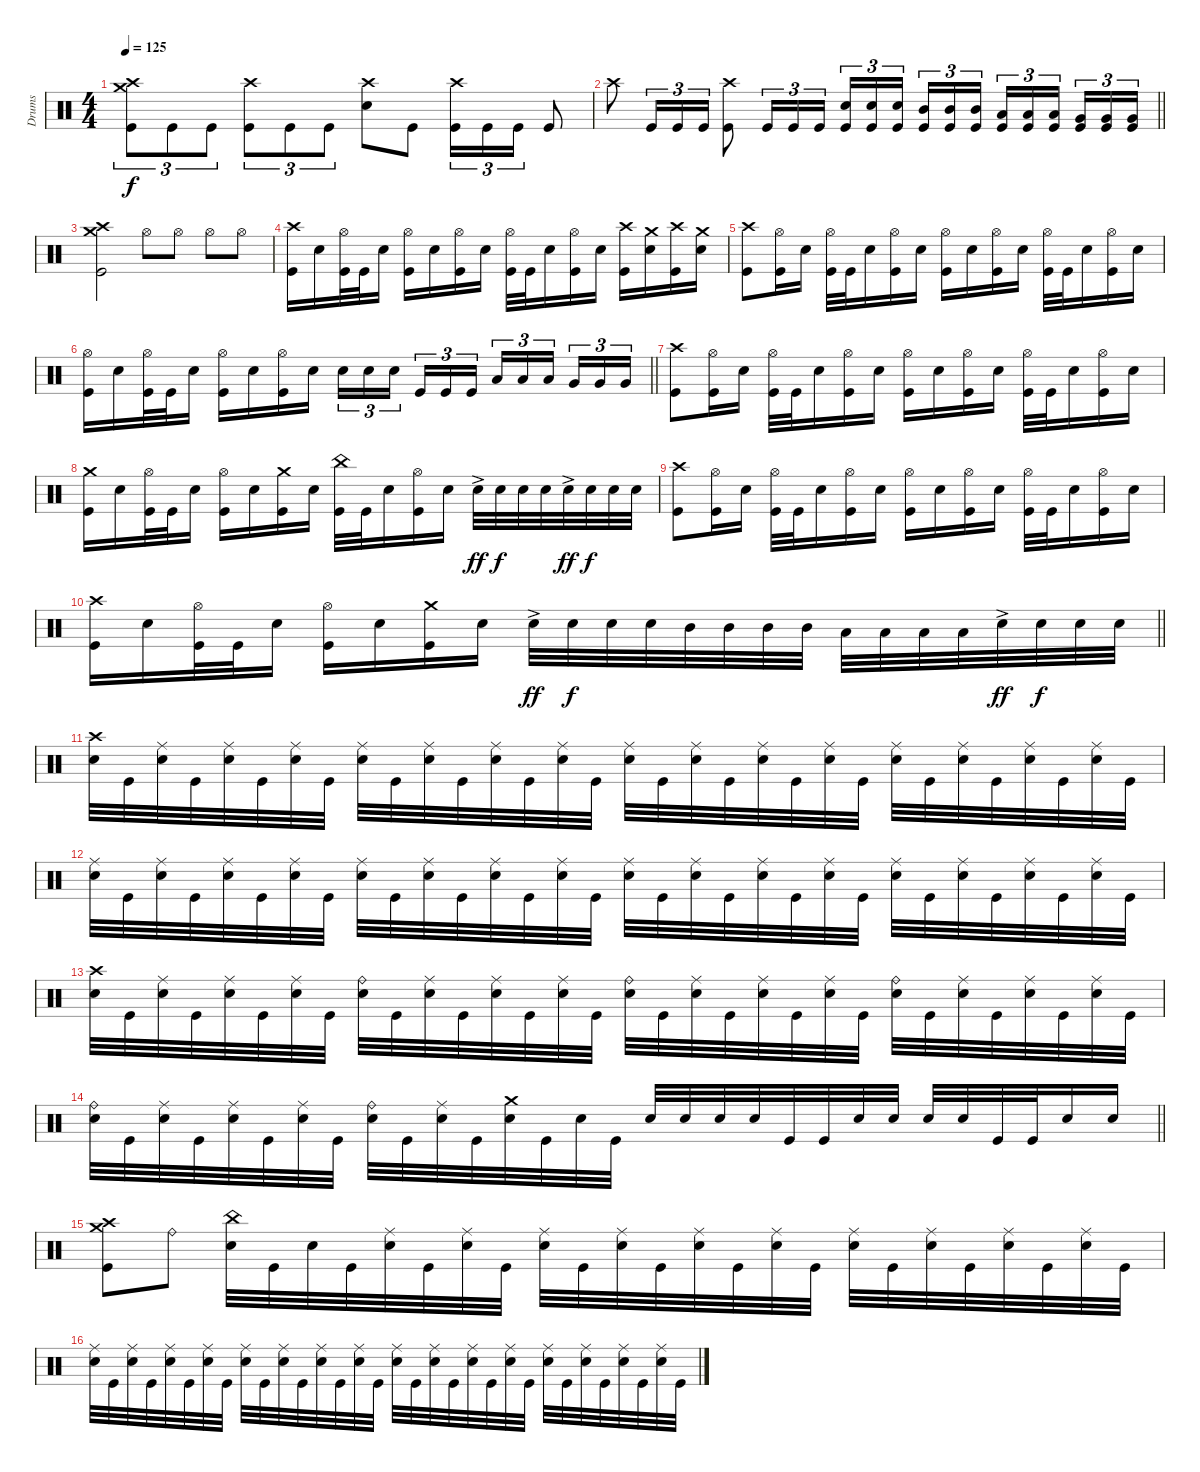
\track ("Drums" "Drums") {instrument percussion}
\staff
\articulation defaults
\ts (4 4)
\tempo 125
\clef neutral
\ks c
("Crash high (hit)" "Crash medium (hit)" "Kick (hit)").8{tu (3 2) dy f} "Kick (hit)".8{tu (3 2)} "Kick (hit)".8{tu (3 2)} ("Crash high (hit)" "Kick (hit)").8{tu (3 2)} "Kick (hit)".8{tu (3 2)} "Kick (hit)".8{tu (3 2)} ("Crash high (hit)" "Electric Snare (hit)").8 "Kick (hit)".8 ("Crash high (hit)" "Kick (hit)").16{tu (3 2)} "Kick (hit)".16{tu (3 2)} "Kick (hit)".16{tu (3 2)} "Kick (hit)".8 |
\barLineRight lightlight "Crash high (hit)".8 "Kick (hit)".16{tu (3 2)} "Kick (hit)".16{tu (3 2)} "Kick (hit)".16{tu (3 2)}
("Crash high (hit)" "Kick (hit)").8 "Kick (hit)".16{tu (3 2)} "Kick (hit)".16{tu (3 2)} "Kick (hit)".16{tu (3 2)} ("Electric Snare (hit)" "Kick (hit)").16{tu (3 2)} ("Electric Snare (hit)" "Kick (hit)").16{tu (3 2)} ("Electric Snare (hit)" "Kick (hit)").16{tu (3 2) beam splitsecondary} ("Mid Tom (hit)" "Kick (hit)").16{tu (3 2)} ("Mid Tom (hit)" "Kick (hit)").16{tu (3 2)} ("Mid Tom (hit)" "Kick (hit)").16{tu (3 2)} ("Low Tom (hit)" "Kick (hit)").16{tu (3 2)} ("Low Tom (hit)" "Kick (hit)").16{tu (3 2)} ("Low Tom (hit)" "Kick (hit)").16{tu (3 2) beam splitsecondary} ("Very Low Tom (hit)" "Kick (hit)").16{tu (3 2)} ("Very Low Tom (hit)" "Kick (hit)").16{tu (3 2)} ("Very Low Tom (hit)" "Kick (hit)").16{tu (3 2)} |
\section ("" "")
("Crash high (hit)" "Crash medium (hit)" "Kick (hit)").2 "Hi-Hat (open)".8 "Hi-Hat (open)".8 "Hi-Hat (open)".8 "Hi-Hat (open)".8 |
("Crash high (hit)" "Kick (hit)").16 "Electric Snare (hit)".16 ("Hi-Hat (open)" "Kick (hit)").32 "Kick (hit)".32 "Electric Snare (hit)".16 ("Hi-Hat (open)" "Kick (hit)").16 "Electric Snare (hit)".16 ("Hi-Hat (open)" "Kick (hit)").16 "Electric Snare (hit)".16 ("Hi-Hat (open)" "Kick (hit)").32 "Kick (hit)".32 "Electric Snare (hit)".16 ("Hi-Hat (open)" "Kick (hit)").16 "Electric Snare (hit)".16 ("Crash high (hit)" "Kick (hit)").16 ("Crash medium (hit)" "Electric Snare (hit)").16 ("Crash high (hit)" "Kick (hit)").16 ("Crash medium (hit)" "Electric Snare (hit)").16 |
("Crash high (hit)" "Kick (hit)").8 ("Hi-Hat (open)" "Kick (hit)").16 "Electric Snare (hit)".16 ("Hi-Hat (open)" "Kick (hit)").32 "Kick (hit)".32 "Electric Snare (hit)".16 ("Hi-Hat (open)" "Kick (hit)").16 "Electric Snare (hit)".16 ("Hi-Hat (open)" "Kick (hit)").16 "Electric Snare (hit)".16 ("Hi-Hat (open)" "Kick (hit)").16 "Electric Snare (hit)".16 ("Hi-Hat (open)" "Kick (hit)").32 "Kick (hit)".32 "Electric Snare (hit)".16 ("Hi-Hat (open)" "Kick (hit)").16 "Electric Snare (hit)".16 |
\barLineRight lightlight
("Hi-Hat (open)" "Kick (hit)").16 "Electric Snare (hit)".16 ("Hi-Hat (open)" "Kick (hit)").32 "Kick (hit)".32 "Electric Snare (hit)".16 ("Hi-Hat (open)" "Kick (hit)").16 "Electric Snare (hit)".16 ("Hi-Hat (open)" "Kick (hit)").16 "Electric Snare (hit)".16 "Electric Snare (hit)".16{tu (3 2)} "Electric Snare (hit)".16{tu (3 2)} "Electric Snare (hit)".16{tu (3 2) beam splitsecondary} "Kick (hit)".16{tu (3 2)} "Kick (hit)".16{tu (3 2)} "Kick (hit)".16{tu (3 2)} "Low Tom (hit)".16{tu (3 2)} "Low Tom (hit)".16{tu (3 2)} "Low Tom (hit)".16{tu (3 2) beam splitsecondary} "Very Low Tom (hit)".16{tu (3 2)} "Very Low Tom (hit)".16{tu (3 2)} "Very Low Tom (hit)".16{tu (3 2)} |
("Crash high (hit)" "Kick (hit)").8 ("Hi-Hat (open)" "Kick (hit)").16 "Electric Snare (hit)".16 ("Hi-Hat (open)" "Kick (hit)").32 "Kick (hit)".32 "Electric Snare (hit)".16 ("Hi-Hat (open)" "Kick (hit)").16 "Electric Snare (hit)".16 ("Hi-Hat (open)" "Kick (hit)").16 "Electric Snare (hit)".16 ("Hi-Hat (open)" "Kick (hit)").16 "Electric Snare (hit)".16 ("Hi-Hat (open)" "Kick (hit)").32 "Kick (hit)".32 "Electric Snare (hit)".16 ("Hi-Hat (open)" "Kick (hit)").16 "Electric Snare (hit)".16 |
("Crash medium (hit)" "Kick (hit)").16 "Electric Snare (hit)".16 ("Hi-Hat (open)" "Kick (hit)").32 "Kick (hit)".32 "Electric Snare (hit)".16 ("Hi-Hat (open)" "Kick (hit)").16 "Electric Snare (hit)".16 ("Crash medium (hit)" "Kick (hit)").16 "Electric Snare (hit)".16 ("China (hit)" "Kick (hit)").32 "Kick (hit)".32 "Electric Snare (hit)".16 ("Hi-Hat (open)" "Kick (hit)").16 "Electric Snare (hit)".16 "Electric Snare (hit)"{ac}.32{dy ff} "Electric Snare (hit)".32{dy f} "Electric Snare (hit)".32 "Electric Snare (hit)".32 "Electric Snare (hit)"{ac}.32{dy ff} "Electric Snare (hit)".32{dy f} "Electric Snare (hit)".32 "Electric Snare (hit)".32 |
("Crash high (hit)" "Kick (hit)").8 ("Hi-Hat (open)" "Kick (hit)").16 "Electric Snare (hit)".16 ("Hi-Hat (open)" "Kick (hit)").32 "Kick (hit)".32 "Electric Snare (hit)".16 ("Hi-Hat (open)" "Kick (hit)").16 "Electric Snare (hit)".16 ("Hi-Hat (open)" "Kick (hit)").16 "Electric Snare (hit)".16 ("Hi-Hat (open)" "Kick (hit)").16 "Electric Snare (hit)".16 ("Hi-Hat (open)" "Kick (hit)").32 "Kick (hit)".32 "Electric Snare (hit)".16 ("Hi-Hat (open)" "Kick (hit)").16 "Electric Snare (hit)".16 |
\barLineRight lightlight
("Crash high (hit)" "Kick (hit)").16 "Electric Snare (hit)".16 ("Hi-Hat (open)" "Kick (hit)").32 "Kick (hit)".32 "Electric Snare (hit)".16 ("Hi-Hat (open)" "Kick (hit)").16 "Electric Snare (hit)".16 ("Crash medium (hit)" "Kick (hit)").16 "Electric Snare (hit)".16 "Electric Snare (hit)"{ac}.32{dy ff} "Electric Snare (hit)".32{dy f} "Electric Snare (hit)".32 "Electric Snare (hit)".32 "Mid Tom (hit)".32 "Mid Tom (hit)".32 "Mid Tom (hit)".32 "Mid Tom (hit)".32 "Low Tom (hit)".32 "Low Tom (hit)".32 "Low Tom (hit)".32 "Low Tom (hit)".32 "Electric Snare (hit)"{ac}.32{dy ff} "Electric Snare (hit)".32{dy f} "Electric Snare (hit)".32 "Electric Snare (hit)".32 |
\section ("" "")
("Crash high (hit)" "Electric Snare (hit)").32 "Kick (hit)".32 ("Ride (middle)" "Electric Snare (hit)").32 "Kick (hit)".32 ("Ride (middle)" "Electric Snare (hit)").32 "Kick (hit)".32 ("Ride (middle)" "Electric Snare (hit)").32 "Kick (hit)".32 ("Ride (middle)" "Electric Snare (hit)").32 "Kick (hit)".32 ("Ride (middle)" "Electric Snare (hit)").32 "Kick (hit)".32 ("Ride (middle)" "Electric Snare (hit)").32 "Kick (hit)".32 ("Ride (middle)" "Electric Snare (hit)").32 "Kick (hit)".32 ("Ride (middle)" "Electric Snare (hit)").32 "Kick (hit)".32 ("Ride (middle)" "Electric Snare (hit)").32 "Kick (hit)".32 ("Ride (middle)" "Electric Snare (hit)").32 "Kick (hit)".32 ("Ride (middle)" "Electric Snare (hit)").32 "Kick (hit)".32 ("Ride (middle)" "Electric Snare (hit)").32 "Kick (hit)".32 ("Ride (middle)" "Electric Snare (hit)").32 "Kick (hit)".32 ("Ride (middle)" "Electric Snare (hit)").32 "Kick (hit)".32 ("Ride (middle)" "Electric Snare (hit)").32 "Kick (hit)".32 |
("Ride (middle)" "Electric Snare (hit)").32 "Kick (hit)".32 ("Ride (middle)" "Electric Snare (hit)").32 "Kick (hit)".32 ("Ride (middle)" "Electric Snare (hit)").32 "Kick (hit)".32 ("Ride (middle)" "Electric Snare (hit)").32 "Kick (hit)".32 ("Ride (middle)" "Electric Snare (hit)").32 "Kick (hit)".32 ("Ride (middle)" "Electric Snare (hit)").32 "Kick (hit)".32 ("Ride (middle)" "Electric Snare (hit)").32 "Kick (hit)".32 ("Ride (middle)" "Electric Snare (hit)").32 "Kick (hit)".32 ("Ride (middle)" "Electric Snare (hit)").32 "Kick (hit)".32 ("Ride (middle)" "Electric Snare (hit)").32 "Kick (hit)".32 ("Ride (middle)" "Electric Snare (hit)").32 "Kick (hit)".32 ("Ride (middle)" "Electric Snare (hit)").32 "Kick (hit)".32 ("Ride (middle)" "Electric Snare (hit)").32 "Kick (hit)".32 ("Ride (middle)" "Electric Snare (hit)").32 "Kick (hit)".32 ("Ride (middle)" "Electric Snare (hit)").32 "Kick (hit)".32 ("Ride (middle)" "Electric Snare (hit)").32 "Kick (hit)".32 |
("Crash high (hit)" "Electric Snare (hit)").32 "Kick (hit)".32 ("Ride (middle)" "Electric Snare (hit)").32 "Kick (hit)".32 ("Ride (middle)" "Electric Snare (hit)").32 "Kick (hit)".32 ("Ride (middle)" "Electric Snare (hit)").32 "Kick (hit)".32 ("Ride (bell)" "Electric Snare (hit)").32 "Kick (hit)".32 ("Ride (middle)" "Electric Snare (hit)").32 "Kick (hit)".32 ("Ride (middle)" "Electric Snare (hit)").32 "Kick (hit)".32 ("Ride (middle)" "Electric Snare (hit)").32 "Kick (hit)".32 ("Ride (bell)" "Electric Snare (hit)").32 "Kick (hit)".32 ("Ride (middle)" "Electric Snare (hit)").32 "Kick (hit)".32 ("Ride (middle)" "Electric Snare (hit)").32 "Kick (hit)".32 ("Ride (middle)" "Electric Snare (hit)").32 "Kick (hit)".32 ("Ride (bell)" "Electric Snare (hit)").32 "Kick (hit)".32 ("Ride (middle)" "Electric Snare (hit)").32 "Kick (hit)".32 ("Ride (middle)" "Electric Snare (hit)").32 "Kick (hit)".32 ("Ride (middle)" "Electric Snare (hit)").32 "Kick (hit)".32 |
\barLineRight lightlight
("Ride (bell)" "Electric Snare (hit)").32 "Kick (hit)".32 ("Ride (middle)" "Electric Snare (hit)").32 "Kick (hit)".32 ("Ride (middle)" "Electric Snare (hit)").32 "Kick (hit)".32 ("Ride (middle)" "Electric Snare (hit)").32 "Kick (hit)".32 ("Ride (bell)" "Electric Snare (hit)").32 "Kick (hit)".32 ("Ride (middle)" "Electric Snare (hit)").32 "Kick (hit)".32 ("Crash medium (hit)" "Electric Snare (hit)").32 "Kick (hit)".32 "Electric Snare (hit)".32 "Kick (hit)".32 "Electric Snare (hit)".32 "Electric Snare (hit)".32 "Electric Snare (hit)".32 "Electric Snare (hit)".32 "Kick (hit)".32 "Kick (hit)".32 "Electric Snare (hit)".32 "Electric Snare (hit)".32 "Electric Snare (hit)".32 "Electric Snare (hit)".32 "Kick (hit)".32 "Kick (hit)".32 "Electric Snare (hit)".16 "Electric Snare (hit)".16 |
("Crash high (hit)" "Crash medium (hit)" "Kick (hit)").8 "Ride (bell)".8 ("China (hit)" "Electric Snare (hit)").32 "Kick (hit)".32 "Electric Snare (hit)".32 "Kick (hit)".32 ("Ride (middle)" "Electric Snare (hit)").32 "Kick (hit)".32 ("Ride (middle)" "Electric Snare (hit)").32 "Kick (hit)".32 ("Ride (middle)" "Electric Snare (hit)").32 "Kick (hit)".32 ("Ride (middle)" "Electric Snare (hit)").32 "Kick (hit)".32 ("Ride (middle)" "Electric Snare (hit)").32 "Kick (hit)".32 ("Ride (middle)" "Electric Snare (hit)").32 "Kick (hit)".32 ("Ride (middle)" "Electric Snare (hit)").32 "Kick (hit)".32 ("Ride (middle)" "Electric Snare (hit)").32 "Kick (hit)".32 ("Ride (middle)" "Electric Snare (hit)").32 "Kick (hit)".32 ("Ride (middle)" "Electric Snare (hit)").32 "Kick (hit)".32 |
("Ride (middle)" "Electric Snare (hit)").32 "Kick (hit)".32 ("Ride (middle)" "Electric Snare (hit)").32 "Kick (hit)".32 ("Ride (middle)" "Electric Snare (hit)").32 "Kick (hit)".32 ("Ride (middle)" "Electric Snare (hit)").32 "Kick (hit)".32 ("Ride (middle)" "Electric Snare (hit)").32 "Kick (hit)".32 ("Ride (middle)" "Electric Snare (hit)").32 "Kick (hit)".32 ("Ride (middle)" "Electric Snare (hit)").32 "Kick (hit)".32 ("Ride (middle)" "Electric Snare (hit)").32 "Kick (hit)".32 ("Ride (middle)" "Electric Snare (hit)").32 "Kick (hit)".32 ("Ride (middle)" "Electric Snare (hit)").32 "Kick (hit)".32 ("Ride (middle)" "Electric Snare (hit)").32 "Kick (hit)".32 ("Ride (middle)" "Electric Snare (hit)").32 "Kick (hit)".32 ("Ride (middle)" "Electric Snare (hit)").32 "Kick (hit)".32 ("Ride (middle)" "Electric Snare (hit)").32 "Kick (hit)".32 ("Ride (middle)" "Electric Snare (hit)").32 "Kick (hit)".32 ("Ride (middle)" "Electric Snare (hit)").32 "Kick (hit)".32
